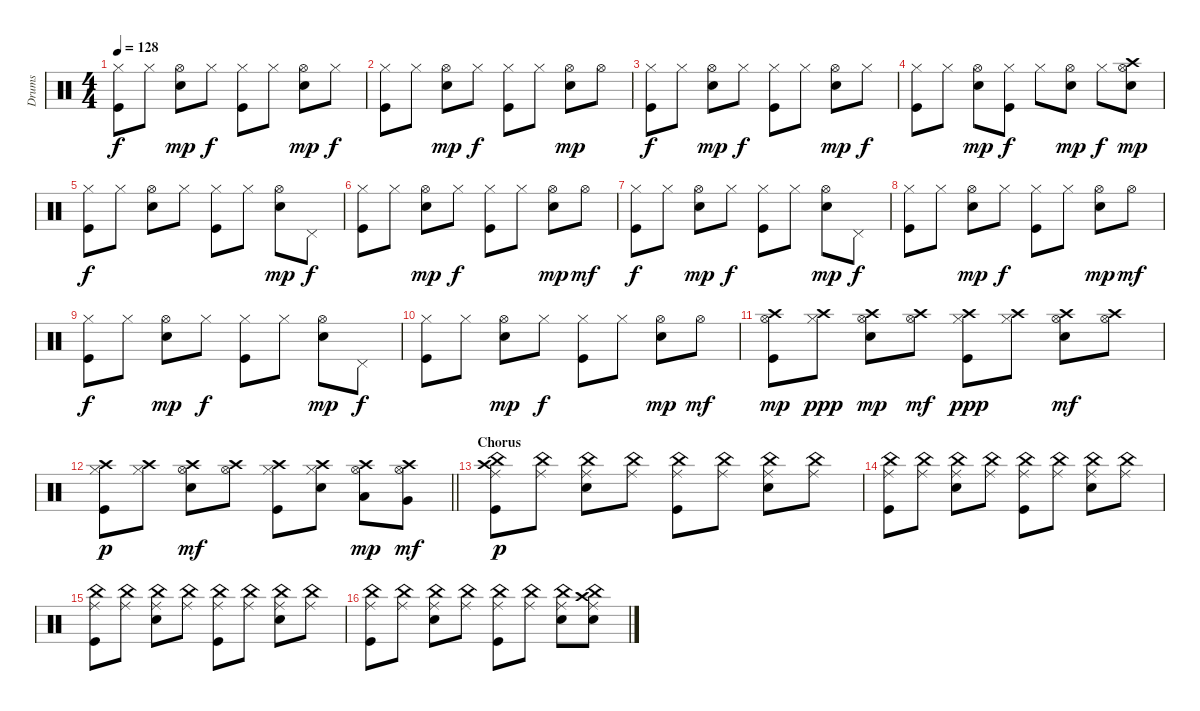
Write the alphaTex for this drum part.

\track ("Drums" "Drums") {instrument percussion}
\staff {score}
\articulation defaults
\ts (4 4)
\tempo 128
\clef neutral
\ks c
("Hi-Hat (closed)" "Kick (hit)").8{dy f} "Hi-Hat (closed)".8 ("Hi-Hat (open)" "Snare (hit) 2").8{dy mp} "Hi-Hat (closed)".8{dy f} ("Hi-Hat (closed)" "Kick (hit)").8 "Hi-Hat (closed)".8 ("Hi-Hat (open)" "Snare (hit) 2").8{dy mp} "Hi-Hat (closed)".8{dy f} |
("Hi-Hat (closed)" "Kick (hit)").8 "Hi-Hat (closed)".8 ("Hi-Hat (open)" "Snare (hit) 2").8{dy mp} "Hi-Hat (closed)".8{dy f} ("Hi-Hat (closed)" "Kick (hit)").8 "Hi-Hat (closed)".8 ("Hi-Hat (open)" "Snare (hit) 2").8{dy mp} "Hi-Hat (open)".8 |
("Hi-Hat (closed)" "Kick (hit)").8{dy f} "Hi-Hat (closed)".8 ("Hi-Hat (open)" "Snare (hit) 2").8{dy mp} "Hi-Hat (closed)".8{dy f} ("Hi-Hat (closed)" "Kick (hit)").8 "Hi-Hat (closed)".8 ("Hi-Hat (open)" "Snare (hit) 2").8{dy mp} "Hi-Hat (closed)".8{dy f} |
("Hi-Hat (closed)" "Kick (hit)").8 "Hi-Hat (closed)".8 ("Hi-Hat (open)" "Snare (hit) 2").8{dy mp} ("Hi-Hat (closed)" "Kick (hit)").8{dy f} "Hi-Hat (closed)".8 ("Hi-Hat (open)" "Snare (hit) 2").8{dy mp} "Hi-Hat (closed)".8{dy f} ("Crash high (hit)" "Hi-Hat (open)" "Snare (hit) 2").8{dy mp} |
("Hi-Hat (closed)" "Kick (hit)").8{dy f} "Hi-Hat (closed)".8 ("Hi-Hat (open)" "Snare (hit) 2").8 "Hi-Hat (closed)".8 ("Hi-Hat (closed)" "Kick (hit)").8 "Hi-Hat (closed)".8 ("Hi-Hat (open)" "Snare (hit) 2").8{dy mp} "Pedal Hi-Hat (hit)".8{dy f} |
("Hi-Hat (closed)" "Kick (hit)").8 "Hi-Hat (closed)".8 ("Hi-Hat (open)" "Snare (hit) 2").8{dy mp} "Hi-Hat (closed)".8{dy f} ("Hi-Hat (closed)" "Kick (hit)").8 "Hi-Hat (closed)".8 ("Hi-Hat (open)" "Snare (hit) 2").8{dy mp} "Hi-Hat (open)".8{dy mf} |
("Hi-Hat (closed)" "Kick (hit)").8{dy f} "Hi-Hat (closed)".8 ("Hi-Hat (open)" "Snare (hit) 2").8{dy mp} "Hi-Hat (closed)".8{dy f} ("Hi-Hat (closed)" "Kick (hit)").8 "Hi-Hat (closed)".8 ("Hi-Hat (open)" "Snare (hit) 2").8{dy mp} "Pedal Hi-Hat (hit)".8{dy f} |
("Hi-Hat (closed)" "Kick (hit)").8 "Hi-Hat (closed)".8 ("Hi-Hat (open)" "Snare (hit) 2").8{dy mp} "Hi-Hat (closed)".8{dy f} ("Hi-Hat (closed)" "Kick (hit)").8 "Hi-Hat (closed)".8 ("Hi-Hat (open)" "Snare (hit) 2").8{dy mp} "Hi-Hat (open)".8{dy mf} |
("Hi-Hat (closed)" "Kick (hit)").8{dy f} "Hi-Hat (closed)".8 ("Hi-Hat (open)" "Snare (hit) 2").8{dy mp} "Hi-Hat (closed)".8{dy f} ("Hi-Hat (closed)" "Kick (hit)").8 "Hi-Hat (closed)".8 ("Hi-Hat (open)" "Snare (hit) 2").8{dy mp} "Pedal Hi-Hat (hit)".8{dy f} |
("Hi-Hat (closed)" "Kick (hit)").8 "Hi-Hat (closed)".8 ("Hi-Hat (open)" "Snare (hit) 2").8{dy mp} "Hi-Hat (closed)".8{dy f} ("Hi-Hat (closed)" "Kick (hit)").8 "Hi-Hat (closed)".8 ("Hi-Hat (open)" "Snare (hit) 2").8{dy mp} "Hi-Hat (open)".8{dy mf} |
("Crash high (hit)" "Hi-Hat (open)" "Kick (hit)").8{dy mp} ("Crash high (hit)" "Hi-Hat (closed)").8{dy ppp} ("Crash high (hit)" "Hi-Hat (open)" "Snare (hit) 2").8{dy mp} ("Crash high (hit)" "Hi-Hat (open)").8{dy mf} ("Crash high (hit)" "Hi-Hat (closed)" "Kick (hit)").8{dy ppp} ("Crash high (hit)" "Hi-Hat (closed)").8 ("Crash high (hit)" "Hi-Hat (open)" "Snare (hit) 2").8{dy mf} ("Crash high (hit)" "Hi-Hat (open)").8 |
\barLineRight lightlight
("Crash high (hit)" "Hi-Hat (closed)" "Kick (hit)").8{dy p} ("Crash high (hit)" "Hi-Hat (closed)").8 ("Crash high (hit)" "Hi-Hat (open)" "Snare (hit) 2").8{dy mf} ("Crash high (hit)" "Hi-Hat (open)").8 ("Crash high (hit)" "Hi-Hat (closed)" "Kick (hit)").8 ("Crash high (hit)" "Hi-Hat (closed)" "Snare (hit) 2").8 ("Crash high (hit)" "Hi-Hat (open)" "Low Tom (hit)").8{dy mp} ("Crash high (hit)" "Hi-Hat (open)" "Very Low Tom (hit)").8{dy mf} |
\section ("" "Chorus")
("Crash high (hit)" "Ride (middle)" "China (hit)" "Kick (hit)").8{dy p} ("Ride (middle)" "China (hit)").8 ("Ride (middle)" "China (hit)" "Snare (hit) 2").8 ("Ride (middle)" "China (hit)").8 ("Ride (middle)" "China (hit)" "Kick (hit)").8 ("Ride (middle)" "China (hit)").8 ("Ride (middle)" "China (hit)" "Electric Snare (hit)").8 ("Ride (middle)" "China (hit)").8 |
("Ride (middle)" "China (hit)" "Kick (hit)").8 ("Ride (middle)" "China (hit)").8 ("Ride (middle)" "China (hit)" "Electric Snare (hit)").8 ("Ride (middle)" "China (hit)").8 ("Ride (middle)" "China (hit)" "Kick (hit)").8 ("Ride (middle)" "China (hit)").8 ("Ride (middle)" "China (hit)" "Electric Snare (hit)").8 ("Ride (middle)" "China (hit)").8 |
("Ride (middle)" "China (hit)" "Kick (hit)").8 ("Ride (middle)" "China (hit)").8 ("Ride (middle)" "China (hit)" "Electric Snare (hit)").8 ("Ride (middle)" "China (hit)").8 ("Ride (middle)" "China (hit)" "Kick (hit)").8 ("Ride (middle)" "China (hit)").8 ("Ride (middle)" "China (hit)" "Electric Snare (hit)").8 ("Ride (middle)" "China (hit)").8 |
("Ride (middle)" "China (hit)" "Kick (hit)").8 ("Ride (middle)" "China (hit)").8 ("Ride (middle)" "China (hit)" "Electric Snare (hit)").8 ("Ride (middle)" "China (hit)").8 ("Ride (middle)" "China (hit)" "Kick (hit)").8 ("Ride (middle)" "China (hit)").8 ("Ride (middle)" "China (hit)" "Electric Snare (hit)").8 ("Crash high (hit)" "Ride (middle)" "China (hit)" "Electric Snare (hit)").8
